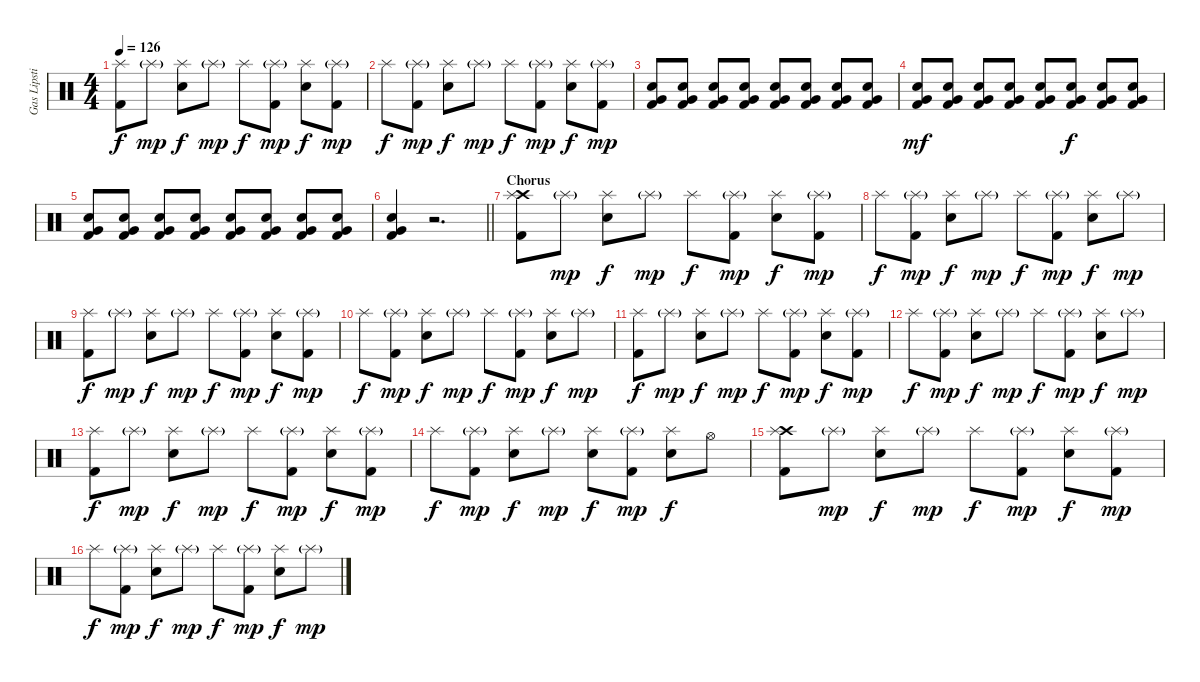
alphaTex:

\track ("Gas Lipstick (Drums)" "Gas Lipsti") {instrument percussion}
\staff {score}
\articulation defaults
\ts (4 4)
\tempo 126
\clef neutral
\ks c
("Splash (hit)" "Kick (hit) 2").8{dy f} "Splash (hit)"{g}.8{dy mp} ("Splash (hit)" "Snare (hit) 2").8{dy f} "Splash (hit)"{g}.8{dy mp} "Splash (hit)".8{dy f} ("Splash (hit)"{g} "Kick (hit) 2").8{dy mp} ("Splash (hit)" "Snare (hit) 2").8{dy f} ("Splash (hit)"{g} "Kick (hit) 2").8{dy mp} |
"Splash (hit)".8{dy f} ("Splash (hit)"{g} "Kick (hit) 2").8{dy mp} ("Splash (hit)" "Snare (hit) 2").8{dy f} "Splash (hit)"{g}.8{dy mp} "Splash (hit)".8{dy f} ("Splash (hit)"{g} "Kick (hit) 2").8{dy mp} ("Splash (hit)" "Snare (hit) 2").8{dy f} ("Splash (hit)"{g} "Kick (hit) 2").8{dy mp} |
("Very Low Tom (hit)" "Snare (hit) 2" "Kick (hit) 2").8 ("Very Low Tom (hit)" "Snare (hit) 2" "Kick (hit) 2").8 ("Very Low Tom (hit)" "Snare (hit) 2" "Kick (hit) 2").8 ("Very Low Tom (hit)" "Snare (hit) 2" "Kick (hit) 2").8 ("Very Low Tom (hit)" "Snare (hit) 2" "Kick (hit) 2").8 ("Very Low Tom (hit)" "Snare (hit) 2" "Kick (hit) 2").8 ("Very Low Tom (hit)" "Snare (hit) 2" "Kick (hit) 2").8 ("Very Low Tom (hit)" "Snare (hit) 2" "Kick (hit) 2").8 |
("Very Low Tom (hit)" "Snare (hit) 2" "Kick (hit) 2").8{dy mf} ("Very Low Tom (hit)" "Snare (hit) 2" "Kick (hit) 2").8 ("Very Low Tom (hit)" "Snare (hit) 2" "Kick (hit) 2").8 ("Very Low Tom (hit)" "Snare (hit) 2" "Kick (hit) 2").8 ("Very Low Tom (hit)" "Snare (hit) 2" "Kick (hit) 2").8 ("Very Low Tom (hit)" "Snare (hit) 2" "Kick (hit) 2").8{dy f} ("Very Low Tom (hit)" "Snare (hit) 2" "Kick (hit) 2").8 ("Very Low Tom (hit)" "Snare (hit) 2" "Kick (hit) 2").8 |
("Very Low Tom (hit)" "Snare (hit) 2" "Kick (hit) 2").8 ("Very Low Tom (hit)" "Snare (hit) 2" "Kick (hit) 2").8 ("Very Low Tom (hit)" "Snare (hit) 2" "Kick (hit) 2").8 ("Very Low Tom (hit)" "Snare (hit) 2" "Kick (hit) 2").8 ("Very Low Tom (hit)" "Snare (hit) 2" "Kick (hit) 2").8 ("Very Low Tom (hit)" "Snare (hit) 2" "Kick (hit) 2").8 ("Very Low Tom (hit)" "Snare (hit) 2" "Kick (hit) 2").8 ("Very Low Tom (hit)" "Snare (hit) 2" "Kick (hit) 2").8 |
\barLineRight lightlight
("Very Low Tom (hit)" "Snare (hit) 2" "Kick (hit) 2").4 r.2{d} |
\section ("" "Chorus")
("Crash high (hit)" "Splash (hit)" "Kick (hit) 2").8 "Splash (hit)"{g}.8{dy mp} ("Splash (hit)" "Snare (hit) 2").8{dy f} "Splash (hit)"{g}.8{dy mp} "Splash (hit)".8{dy f} ("Splash (hit)"{g} "Kick (hit) 2").8{dy mp} ("Splash (hit)" "Snare (hit) 2").8{dy f} ("Splash (hit)"{g} "Kick (hit) 2").8{dy mp} |
"Splash (hit)".8{dy f} ("Splash (hit)"{g} "Kick (hit) 2").8{dy mp} ("Splash (hit)" "Snare (hit) 2").8{dy f} "Splash (hit)"{g}.8{dy mp} "Splash (hit)".8{dy f} ("Splash (hit)"{g} "Kick (hit) 2").8{dy mp} ("Splash (hit)" "Snare (hit) 2").8{dy f} "Splash (hit)"{g}.8{dy mp} |
("Splash (hit)" "Kick (hit) 2").8{dy f} "Splash (hit)"{g}.8{dy mp} ("Splash (hit)" "Snare (hit) 2").8{dy f} "Splash (hit)"{g}.8{dy mp} "Splash (hit)".8{dy f} ("Splash (hit)"{g} "Kick (hit) 2").8{dy mp} ("Splash (hit)" "Snare (hit) 2").8{dy f} ("Splash (hit)"{g} "Kick (hit) 2").8{dy mp} |
"Splash (hit)".8{dy f} ("Splash (hit)"{g} "Kick (hit) 2").8{dy mp} ("Splash (hit)" "Snare (hit) 2").8{dy f} "Splash (hit)"{g}.8{dy mp} "Splash (hit)".8{dy f} ("Splash (hit)"{g} "Kick (hit) 2").8{dy mp} ("Splash (hit)" "Snare (hit) 2").8{dy f} "Splash (hit)"{g}.8{dy mp} |
("Splash (hit)" "Kick (hit) 2").8{dy f} "Splash (hit)"{g}.8{dy mp} ("Splash (hit)" "Snare (hit) 2").8{dy f} "Splash (hit)"{g}.8{dy mp} "Splash (hit)".8{dy f} ("Splash (hit)"{g} "Kick (hit) 2").8{dy mp} ("Splash (hit)" "Snare (hit) 2").8{dy f} ("Splash (hit)"{g} "Kick (hit) 2").8{dy mp} |
"Splash (hit)".8{dy f} ("Splash (hit)"{g} "Kick (hit) 2").8{dy mp} ("Splash (hit)" "Snare (hit) 2").8{dy f} "Splash (hit)"{g}.8{dy mp} "Splash (hit)".8{dy f} ("Splash (hit)"{g} "Kick (hit) 2").8{dy mp} ("Splash (hit)" "Snare (hit) 2").8{dy f} "Splash (hit)"{g}.8{dy mp} |
("Splash (hit)" "Kick (hit) 2").8{dy f} "Splash (hit)"{g}.8{dy mp} ("Splash (hit)" "Snare (hit) 2").8{dy f} "Splash (hit)"{g}.8{dy mp} "Splash (hit)".8{dy f} ("Splash (hit)"{g} "Kick (hit) 2").8{dy mp} ("Splash (hit)" "Snare (hit) 2").8{dy f} ("Splash (hit)"{g} "Kick (hit) 2").8{dy mp} |
"Splash (hit)".8{dy f} ("Splash (hit)"{g} "Kick (hit) 2").8{dy mp} ("Splash (hit)" "Snare (hit) 2").8{dy f} "Splash (hit)"{g}.8{dy mp} ("Splash (hit)" "Snare (hit) 2").8{dy f} ("Splash (hit)"{g} "Kick (hit) 2").8{dy mp} ("Splash (hit)" "Snare (hit) 2").8{dy f} "Hi-Hat (open)".8 |
("Crash high (hit)" "Splash (hit)" "Kick (hit) 2").8 "Splash (hit)"{g}.8{dy mp} ("Splash (hit)" "Snare (hit) 2").8{dy f} "Splash (hit)"{g}.8{dy mp} "Splash (hit)".8{dy f} ("Splash (hit)"{g} "Kick (hit) 2").8{dy mp} ("Splash (hit)" "Snare (hit) 2").8{dy f} ("Splash (hit)"{g} "Kick (hit) 2").8{dy mp} |
"Splash (hit)".8{dy f} ("Splash (hit)"{g} "Kick (hit) 2").8{dy mp} ("Splash (hit)" "Snare (hit) 2").8{dy f} "Splash (hit)"{g}.8{dy mp} "Splash (hit)".8{dy f} ("Splash (hit)"{g} "Kick (hit) 2").8{dy mp} ("Splash (hit)" "Snare (hit) 2").8{dy f} "Splash (hit)"{g}.8{dy mp}
